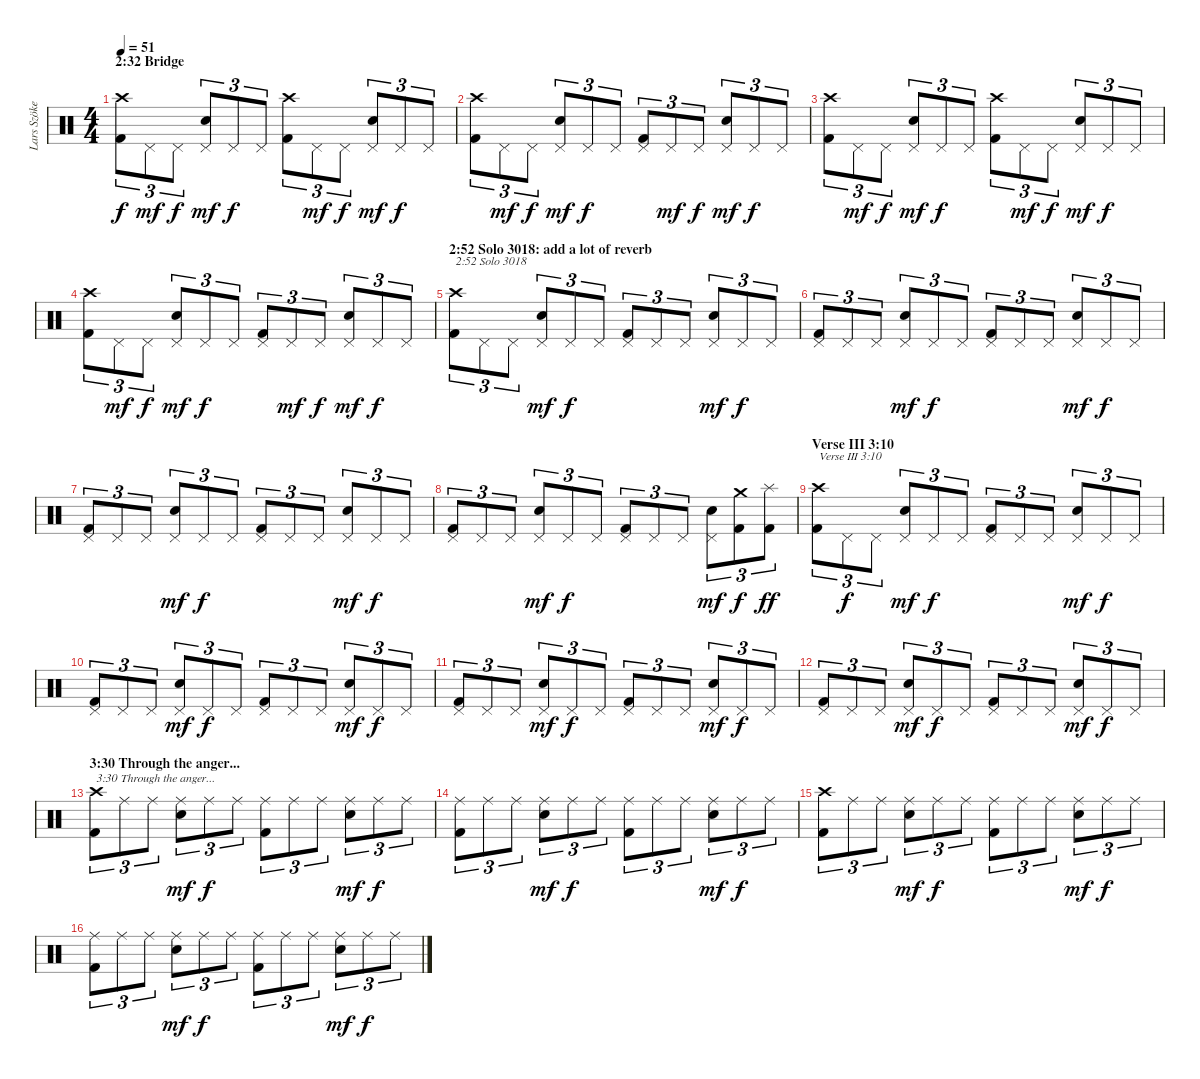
\track ("Lars Szöke (Percussion)" "Lars Szöke") {instrument percussion}
\staff {score}
\articulation defaults
\ts (4 4)
\section ("" "2:32 Bridge")
\tempo 51
\clef neutral
\ks c
("Kick (hit) 2" "Crash high (hit)").8{tu (3 2) dy f} "Pedal Hi-Hat (hit)".8{tu (3 2) dy mf} "Pedal Hi-Hat (hit)".8{tu (3 2) dy f} ("Snare (hit) 2" "Pedal Hi-Hat (hit)").8{tu (3 2) dy mf} "Pedal Hi-Hat (hit)".8{tu (3 2) dy f} "Pedal Hi-Hat (hit)".8{tu (3 2)} ("Kick (hit) 2" "Crash high (hit)").8{tu (3 2)} "Pedal Hi-Hat (hit)".8{tu (3 2) dy mf} "Pedal Hi-Hat (hit)".8{tu (3 2) dy f} ("Snare (hit) 2" "Pedal Hi-Hat (hit)").8{tu (3 2) dy mf} "Pedal Hi-Hat (hit)".8{tu (3 2) dy f} "Pedal Hi-Hat (hit)".8{tu (3 2)} |
("Kick (hit) 2" "Crash high (hit)").8{tu (3 2)} "Pedal Hi-Hat (hit)".8{tu (3 2) dy mf} "Pedal Hi-Hat (hit)".8{tu (3 2) dy f} ("Snare (hit) 2" "Pedal Hi-Hat (hit)").8{tu (3 2) dy mf} "Pedal Hi-Hat (hit)".8{tu (3 2) dy f} "Pedal Hi-Hat (hit)".8{tu (3 2)} ("Kick (hit) 2" "Pedal Hi-Hat (hit)").8{tu (3 2)} "Pedal Hi-Hat (hit)".8{tu (3 2) dy mf} "Pedal Hi-Hat (hit)".8{tu (3 2) dy f} ("Snare (hit) 2" "Pedal Hi-Hat (hit)").8{tu (3 2) dy mf} "Pedal Hi-Hat (hit)".8{tu (3 2) dy f} "Pedal Hi-Hat (hit)".8{tu (3 2)} |
("Kick (hit) 2" "Crash high (hit)").8{tu (3 2)} "Pedal Hi-Hat (hit)".8{tu (3 2) dy mf} "Pedal Hi-Hat (hit)".8{tu (3 2) dy f} ("Snare (hit) 2" "Pedal Hi-Hat (hit)").8{tu (3 2) dy mf} "Pedal Hi-Hat (hit)".8{tu (3 2) dy f} "Pedal Hi-Hat (hit)".8{tu (3 2)} ("Kick (hit) 2" "Crash high (hit)").8{tu (3 2)} "Pedal Hi-Hat (hit)".8{tu (3 2) dy mf} "Pedal Hi-Hat (hit)".8{tu (3 2) dy f} ("Snare (hit) 2" "Pedal Hi-Hat (hit)").8{tu (3 2) dy mf} "Pedal Hi-Hat (hit)".8{tu (3 2) dy f} "Pedal Hi-Hat (hit)".8{tu (3 2)} |
("Kick (hit) 2" "Crash high (hit)").8{tu (3 2)} "Pedal Hi-Hat (hit)".8{tu (3 2) dy mf} "Pedal Hi-Hat (hit)".8{tu (3 2) dy f} ("Snare (hit) 2" "Pedal Hi-Hat (hit)").8{tu (3 2) dy mf} "Pedal Hi-Hat (hit)".8{tu (3 2) dy f} "Pedal Hi-Hat (hit)".8{tu (3 2)} ("Kick (hit) 2" "Pedal Hi-Hat (hit)").8{tu (3 2)} "Pedal Hi-Hat (hit)".8{tu (3 2) dy mf} "Pedal Hi-Hat (hit)".8{tu (3 2) dy f} ("Snare (hit) 2" "Pedal Hi-Hat (hit)").8{tu (3 2) dy mf} "Pedal Hi-Hat (hit)".8{tu (3 2) dy f} "Pedal Hi-Hat (hit)".8{tu (3 2)} |
\section ("" "2:52 Solo 3018: add a lot of reverb")
("Kick (hit) 2" "Crash high (hit)").8{tu (3 2) txt "2:52 Solo 3018"} "Pedal Hi-Hat (hit)".8{tu (3 2)} "Pedal Hi-Hat (hit)".8{tu (3 2)} ("Snare (hit) 2" "Pedal Hi-Hat (hit)").8{tu (3 2) dy mf} "Pedal Hi-Hat (hit)".8{tu (3 2) dy f} "Pedal Hi-Hat (hit)".8{tu (3 2)} ("Kick (hit) 2" "Pedal Hi-Hat (hit)").8{tu (3 2)} "Pedal Hi-Hat (hit)".8{tu (3 2)} "Pedal Hi-Hat (hit)".8{tu (3 2)} ("Snare (hit) 2" "Pedal Hi-Hat (hit)").8{tu (3 2) dy mf} "Pedal Hi-Hat (hit)".8{tu (3 2) dy f} "Pedal Hi-Hat (hit)".8{tu (3 2)} |
("Kick (hit) 2" "Pedal Hi-Hat (hit)").8{tu (3 2)} "Pedal Hi-Hat (hit)".8{tu (3 2)} "Pedal Hi-Hat (hit)".8{tu (3 2)} ("Snare (hit) 2" "Pedal Hi-Hat (hit)").8{tu (3 2) dy mf} "Pedal Hi-Hat (hit)".8{tu (3 2) dy f} "Pedal Hi-Hat (hit)".8{tu (3 2)} ("Kick (hit) 2" "Pedal Hi-Hat (hit)").8{tu (3 2)} "Pedal Hi-Hat (hit)".8{tu (3 2)} "Pedal Hi-Hat (hit)".8{tu (3 2)} ("Snare (hit) 2" "Pedal Hi-Hat (hit)").8{tu (3 2) dy mf} "Pedal Hi-Hat (hit)".8{tu (3 2) dy f} "Pedal Hi-Hat (hit)".8{tu (3 2)} |
("Kick (hit) 2" "Pedal Hi-Hat (hit)").8{tu (3 2)} "Pedal Hi-Hat (hit)".8{tu (3 2)} "Pedal Hi-Hat (hit)".8{tu (3 2)} ("Snare (hit) 2" "Pedal Hi-Hat (hit)").8{tu (3 2) dy mf} "Pedal Hi-Hat (hit)".8{tu (3 2) dy f} "Pedal Hi-Hat (hit)".8{tu (3 2)} ("Kick (hit) 2" "Pedal Hi-Hat (hit)").8{tu (3 2)} "Pedal Hi-Hat (hit)".8{tu (3 2)} "Pedal Hi-Hat (hit)".8{tu (3 2)} ("Snare (hit) 2" "Pedal Hi-Hat (hit)").8{tu (3 2) dy mf} "Pedal Hi-Hat (hit)".8{tu (3 2) dy f} "Pedal Hi-Hat (hit)".8{tu (3 2)} |
("Kick (hit) 2" "Pedal Hi-Hat (hit)").8{tu (3 2)} "Pedal Hi-Hat (hit)".8{tu (3 2)} "Pedal Hi-Hat (hit)".8{tu (3 2)} ("Snare (hit) 2" "Pedal Hi-Hat (hit)").8{tu (3 2) dy mf} "Pedal Hi-Hat (hit)".8{tu (3 2) dy f} "Pedal Hi-Hat (hit)".8{tu (3 2)} ("Kick (hit) 2" "Pedal Hi-Hat (hit)").8{tu (3 2)} "Pedal Hi-Hat (hit)".8{tu (3 2)} "Pedal Hi-Hat (hit)".8{tu (3 2)} ("Snare (hit) 2" "Pedal Hi-Hat (hit)").8{tu (3 2) dy mf} ("Kick (hit) 2" "Crash medium (hit)").8{tu (3 2) dy f} ("Kick (hit) 2" "Splash (hit)").8{tu (3 2) dy ff} |
\section ("" "Verse III 3:10")
("Kick (hit) 2" "Crash high (hit)").8{tu (3 2) txt "Verse III 3:10"} "Pedal Hi-Hat (hit)".8{tu (3 2) dy f} "Pedal Hi-Hat (hit)".8{tu (3 2)} ("Snare (hit) 2" "Pedal Hi-Hat (hit)").8{tu (3 2) dy mf} "Pedal Hi-Hat (hit)".8{tu (3 2) dy f} "Pedal Hi-Hat (hit)".8{tu (3 2)} ("Kick (hit) 2" "Pedal Hi-Hat (hit)").8{tu (3 2)} "Pedal Hi-Hat (hit)".8{tu (3 2)} "Pedal Hi-Hat (hit)".8{tu (3 2)} ("Snare (hit) 2" "Pedal Hi-Hat (hit)").8{tu (3 2) dy mf} "Pedal Hi-Hat (hit)".8{tu (3 2) dy f} "Pedal Hi-Hat (hit)".8{tu (3 2)} |
("Kick (hit) 2" "Pedal Hi-Hat (hit)").8{tu (3 2)} "Pedal Hi-Hat (hit)".8{tu (3 2)} "Pedal Hi-Hat (hit)".8{tu (3 2)} ("Snare (hit) 2" "Pedal Hi-Hat (hit)").8{tu (3 2) dy mf} "Pedal Hi-Hat (hit)".8{tu (3 2) dy f} "Pedal Hi-Hat (hit)".8{tu (3 2)} ("Kick (hit) 2" "Pedal Hi-Hat (hit)").8{tu (3 2)} "Pedal Hi-Hat (hit)".8{tu (3 2)} "Pedal Hi-Hat (hit)".8{tu (3 2)} ("Snare (hit) 2" "Pedal Hi-Hat (hit)").8{tu (3 2) dy mf} "Pedal Hi-Hat (hit)".8{tu (3 2) dy f} "Pedal Hi-Hat (hit)".8{tu (3 2)} |
("Kick (hit) 2" "Pedal Hi-Hat (hit)").8{tu (3 2)} "Pedal Hi-Hat (hit)".8{tu (3 2)} "Pedal Hi-Hat (hit)".8{tu (3 2)} ("Snare (hit) 2" "Pedal Hi-Hat (hit)").8{tu (3 2) dy mf} "Pedal Hi-Hat (hit)".8{tu (3 2) dy f} "Pedal Hi-Hat (hit)".8{tu (3 2)} ("Kick (hit) 2" "Pedal Hi-Hat (hit)").8{tu (3 2)} "Pedal Hi-Hat (hit)".8{tu (3 2)} "Pedal Hi-Hat (hit)".8{tu (3 2)} ("Snare (hit) 2" "Pedal Hi-Hat (hit)").8{tu (3 2) dy mf} "Pedal Hi-Hat (hit)".8{tu (3 2) dy f} "Pedal Hi-Hat (hit)".8{tu (3 2)} |
("Kick (hit) 2" "Pedal Hi-Hat (hit)").8{tu (3 2)} "Pedal Hi-Hat (hit)".8{tu (3 2)} "Pedal Hi-Hat (hit)".8{tu (3 2)} ("Snare (hit) 2" "Pedal Hi-Hat (hit)").8{tu (3 2) dy mf} "Pedal Hi-Hat (hit)".8{tu (3 2) dy f} "Pedal Hi-Hat (hit)".8{tu (3 2)} ("Kick (hit) 2" "Pedal Hi-Hat (hit)").8{tu (3 2)} "Pedal Hi-Hat (hit)".8{tu (3 2)} "Pedal Hi-Hat (hit)".8{tu (3 2)} ("Snare (hit) 2" "Pedal Hi-Hat (hit)").8{tu (3 2) dy mf} "Pedal Hi-Hat (hit)".8{tu (3 2) dy f} "Pedal Hi-Hat (hit)".8{tu (3 2)} |
\section ("" "3:30 Through the anger...")
("Kick (hit) 2" "Crash high (hit)").8{tu (3 2) txt "3:30 Through the anger..."} "Ride (middle)".8{tu (3 2)} "Ride (middle)".8{tu (3 2)} ("Snare (hit) 2" "Ride (middle)").8{tu (3 2) dy mf} "Ride (middle)".8{tu (3 2) dy f} "Ride (middle)".8{tu (3 2)} ("Kick (hit) 2" "Ride (middle)").8{tu (3 2)} "Ride (middle)".8{tu (3 2)} "Ride (middle)".8{tu (3 2)} ("Snare (hit) 2" "Ride (middle)").8{tu (3 2) dy mf} "Ride (middle)".8{tu (3 2) dy f} "Ride (middle)".8{tu (3 2)} |
("Kick (hit) 2" "Ride (middle)").8{tu (3 2)} "Ride (middle)".8{tu (3 2)} "Ride (middle)".8{tu (3 2)} ("Snare (hit) 2" "Ride (middle)").8{tu (3 2) dy mf} "Ride (middle)".8{tu (3 2) dy f} "Ride (middle)".8{tu (3 2)} ("Kick (hit) 2" "Ride (middle)").8{tu (3 2)} "Ride (middle)".8{tu (3 2)} "Ride (middle)".8{tu (3 2)} ("Snare (hit) 2" "Ride (middle)").8{tu (3 2) dy mf} "Ride (middle)".8{tu (3 2) dy f} "Ride (middle)".8{tu (3 2)} |
("Kick (hit) 2" "Crash high (hit)").8{tu (3 2)} "Ride (middle)".8{tu (3 2)} "Ride (middle)".8{tu (3 2)} ("Snare (hit) 2" "Ride (middle)").8{tu (3 2) dy mf} "Ride (middle)".8{tu (3 2) dy f} "Ride (middle)".8{tu (3 2)} ("Kick (hit) 2" "Ride (middle)").8{tu (3 2)} "Ride (middle)".8{tu (3 2)} "Ride (middle)".8{tu (3 2)} ("Snare (hit) 2" "Ride (middle)").8{tu (3 2) dy mf} "Ride (middle)".8{tu (3 2) dy f} "Ride (middle)".8{tu (3 2)} |
("Kick (hit) 2" "Ride (middle)").8{tu (3 2)} "Ride (middle)".8{tu (3 2)} "Ride (middle)".8{tu (3 2)} ("Snare (hit) 2" "Ride (middle)").8{tu (3 2) dy mf} "Ride (middle)".8{tu (3 2) dy f} "Ride (middle)".8{tu (3 2)} ("Kick (hit) 2" "Ride (middle)").8{tu (3 2)} "Ride (middle)".8{tu (3 2)} "Ride (middle)".8{tu (3 2)} ("Snare (hit) 2" "Ride (middle)").8{tu (3 2) dy mf} "Ride (middle)".8{tu (3 2) dy f} "Ride (middle)".8{tu (3 2)}
